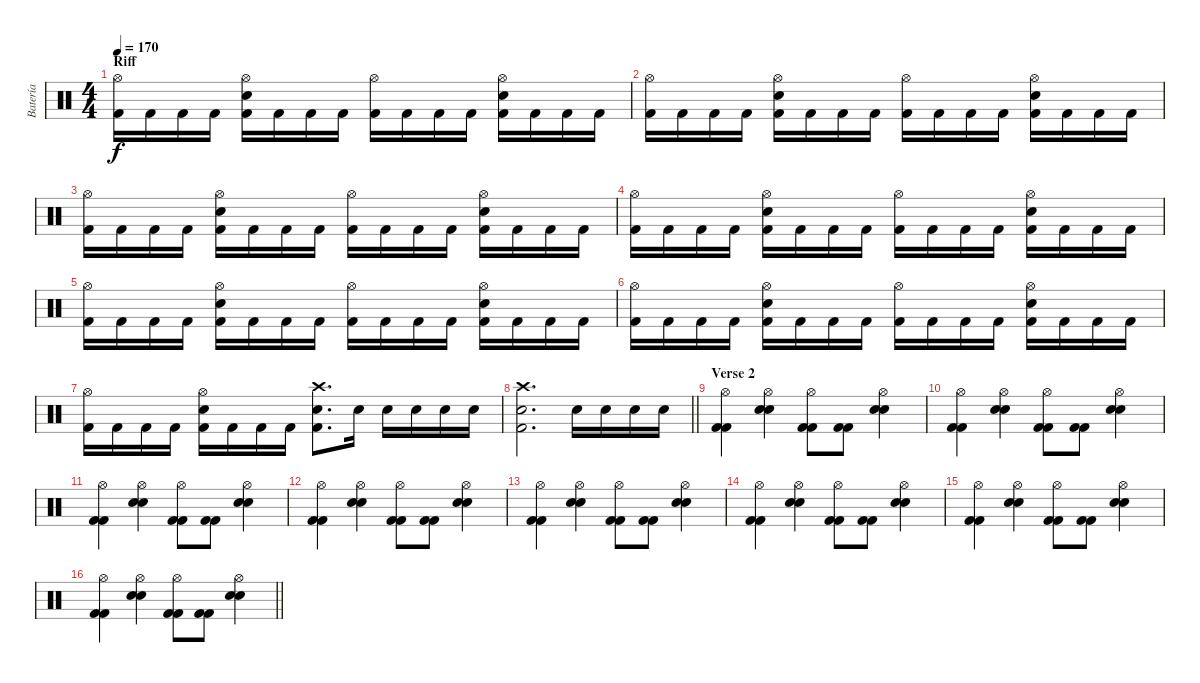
\track ("Batería" "Batería") {instrument percussion}
\staff {score}
\articulation defaults
\ts (4 4)
\section ("" "Riff")
\tempo 170
\clef neutral
\ks c
("Hi-Hat (open)" "Kick (hit) 2").16{dy f} "Kick (hit) 2".16 "Kick (hit) 2".16 "Kick (hit) 2".16 ("Hi-Hat (open)" "Snare (hit) 2" "Kick (hit) 2").16 "Kick (hit) 2".16 "Kick (hit) 2".16 "Kick (hit) 2".16 ("Hi-Hat (open)" "Kick (hit) 2").16 "Kick (hit) 2".16 "Kick (hit) 2".16 "Kick (hit) 2".16 ("Hi-Hat (open)" "Snare (hit) 2" "Kick (hit) 2").16 "Kick (hit) 2".16 "Kick (hit) 2".16 "Kick (hit) 2".16 |
("Hi-Hat (open)" "Kick (hit) 2").16 "Kick (hit) 2".16 "Kick (hit) 2".16 "Kick (hit) 2".16 ("Hi-Hat (open)" "Snare (hit) 2" "Kick (hit) 2").16 "Kick (hit) 2".16 "Kick (hit) 2".16 "Kick (hit) 2".16 ("Hi-Hat (open)" "Kick (hit) 2").16 "Kick (hit) 2".16 "Kick (hit) 2".16 "Kick (hit) 2".16 ("Hi-Hat (open)" "Snare (hit) 2" "Kick (hit) 2").16 "Kick (hit) 2".16 "Kick (hit) 2".16 "Kick (hit) 2".16 |
("Hi-Hat (open)" "Kick (hit) 2").16 "Kick (hit) 2".16 "Kick (hit) 2".16 "Kick (hit) 2".16 ("Hi-Hat (open)" "Snare (hit) 2" "Kick (hit) 2").16 "Kick (hit) 2".16 "Kick (hit) 2".16 "Kick (hit) 2".16 ("Hi-Hat (open)" "Kick (hit) 2").16 "Kick (hit) 2".16 "Kick (hit) 2".16 "Kick (hit) 2".16 ("Hi-Hat (open)" "Snare (hit) 2" "Kick (hit) 2").16 "Kick (hit) 2".16 "Kick (hit) 2".16 "Kick (hit) 2".16 |
("Hi-Hat (open)" "Kick (hit) 2").16 "Kick (hit) 2".16 "Kick (hit) 2".16 "Kick (hit) 2".16 ("Hi-Hat (open)" "Snare (hit) 2" "Kick (hit) 2").16 "Kick (hit) 2".16 "Kick (hit) 2".16 "Kick (hit) 2".16 ("Hi-Hat (open)" "Kick (hit) 2").16 "Kick (hit) 2".16 "Kick (hit) 2".16 "Kick (hit) 2".16 ("Hi-Hat (open)" "Snare (hit) 2" "Kick (hit) 2").16 "Kick (hit) 2".16 "Kick (hit) 2".16 "Kick (hit) 2".16 |
("Hi-Hat (open)" "Kick (hit) 2").16 "Kick (hit) 2".16 "Kick (hit) 2".16 "Kick (hit) 2".16 ("Hi-Hat (open)" "Snare (hit) 2" "Kick (hit) 2").16 "Kick (hit) 2".16 "Kick (hit) 2".16 "Kick (hit) 2".16 ("Hi-Hat (open)" "Kick (hit) 2").16 "Kick (hit) 2".16 "Kick (hit) 2".16 "Kick (hit) 2".16 ("Hi-Hat (open)" "Snare (hit) 2" "Kick (hit) 2").16 "Kick (hit) 2".16 "Kick (hit) 2".16 "Kick (hit) 2".16 |
("Hi-Hat (open)" "Kick (hit) 2").16 "Kick (hit) 2".16 "Kick (hit) 2".16 "Kick (hit) 2".16 ("Hi-Hat (open)" "Snare (hit) 2" "Kick (hit) 2").16 "Kick (hit) 2".16 "Kick (hit) 2".16 "Kick (hit) 2".16 ("Hi-Hat (open)" "Kick (hit) 2").16 "Kick (hit) 2".16 "Kick (hit) 2".16 "Kick (hit) 2".16 ("Hi-Hat (open)" "Snare (hit) 2" "Kick (hit) 2").16 "Kick (hit) 2".16 "Kick (hit) 2".16 "Kick (hit) 2".16 |
("Hi-Hat (open)" "Kick (hit) 2").16 "Kick (hit) 2".16 "Kick (hit) 2".16 "Kick (hit) 2".16 ("Hi-Hat (open)" "Snare (hit) 2" "Kick (hit) 2").16 "Kick (hit) 2".16 "Kick (hit) 2".16 "Kick (hit) 2".16 ("Crash high (hit)" "Snare (hit) 2" "Kick (hit) 2").8{d} "Snare (hit) 2".16 "Snare (hit) 2".16 "Snare (hit) 2".16 "Snare (hit) 2".16 "Snare (hit) 2".16 |
\barLineRight lightlight
("Crash high (hit)" "Snare (hit) 2" "Kick (hit) 2").2{d} "Snare (hit) 2".16 "Snare (hit) 2".16 "Snare (hit) 2".16 "Snare (hit) 2".16 |
\section ("" "Verse 2")
("Hi-Hat (open)" "Kick (hit) 2" "Kick (hit) 2").4 ("Hi-Hat (open)" "Snare (hit) 2" "Snare (hit) 2").4 ("Hi-Hat (open)" "Kick (hit) 2" "Kick (hit) 2").8 ("Kick (hit) 2" "Kick (hit) 2").8 ("Hi-Hat (open)" "Snare (hit) 2" "Snare (hit) 2").4 |
("Hi-Hat (open)" "Kick (hit) 2" "Kick (hit) 2").4 ("Hi-Hat (open)" "Snare (hit) 2" "Snare (hit) 2").4 ("Hi-Hat (open)" "Kick (hit) 2" "Kick (hit) 2").8 ("Kick (hit) 2" "Kick (hit) 2").8 ("Hi-Hat (open)" "Snare (hit) 2" "Snare (hit) 2").4 |
("Hi-Hat (open)" "Kick (hit) 2" "Kick (hit) 2").4 ("Hi-Hat (open)" "Snare (hit) 2" "Snare (hit) 2").4 ("Hi-Hat (open)" "Kick (hit) 2" "Kick (hit) 2").8 ("Kick (hit) 2" "Kick (hit) 2").8 ("Hi-Hat (open)" "Snare (hit) 2" "Snare (hit) 2").4 |
("Hi-Hat (open)" "Kick (hit) 2" "Kick (hit) 2").4 ("Hi-Hat (open)" "Snare (hit) 2" "Snare (hit) 2").4 ("Hi-Hat (open)" "Kick (hit) 2" "Kick (hit) 2").8 ("Kick (hit) 2" "Kick (hit) 2").8 ("Hi-Hat (open)" "Snare (hit) 2" "Snare (hit) 2").4 |
("Hi-Hat (open)" "Kick (hit) 2" "Kick (hit) 2").4 ("Hi-Hat (open)" "Snare (hit) 2" "Snare (hit) 2").4 ("Hi-Hat (open)" "Kick (hit) 2" "Kick (hit) 2").8 ("Kick (hit) 2" "Kick (hit) 2").8 ("Hi-Hat (open)" "Snare (hit) 2" "Snare (hit) 2").4 |
("Hi-Hat (open)" "Kick (hit) 2" "Kick (hit) 2").4 ("Hi-Hat (open)" "Snare (hit) 2" "Snare (hit) 2").4 ("Hi-Hat (open)" "Kick (hit) 2" "Kick (hit) 2").8 ("Kick (hit) 2" "Kick (hit) 2").8 ("Hi-Hat (open)" "Snare (hit) 2" "Snare (hit) 2").4 |
("Hi-Hat (open)" "Kick (hit) 2" "Kick (hit) 2").4 ("Hi-Hat (open)" "Snare (hit) 2" "Snare (hit) 2").4 ("Hi-Hat (open)" "Kick (hit) 2" "Kick (hit) 2").8 ("Kick (hit) 2" "Kick (hit) 2").8 ("Hi-Hat (open)" "Snare (hit) 2" "Snare (hit) 2").4 |
\barLineRight lightlight
("Hi-Hat (open)" "Kick (hit) 2" "Kick (hit) 2").4 ("Hi-Hat (open)" "Snare (hit) 2" "Snare (hit) 2").4 ("Hi-Hat (open)" "Kick (hit) 2" "Kick (hit) 2").8 ("Kick (hit) 2" "Kick (hit) 2").8 ("Hi-Hat (open)" "Snare (hit) 2" "Snare (hit) 2").4
